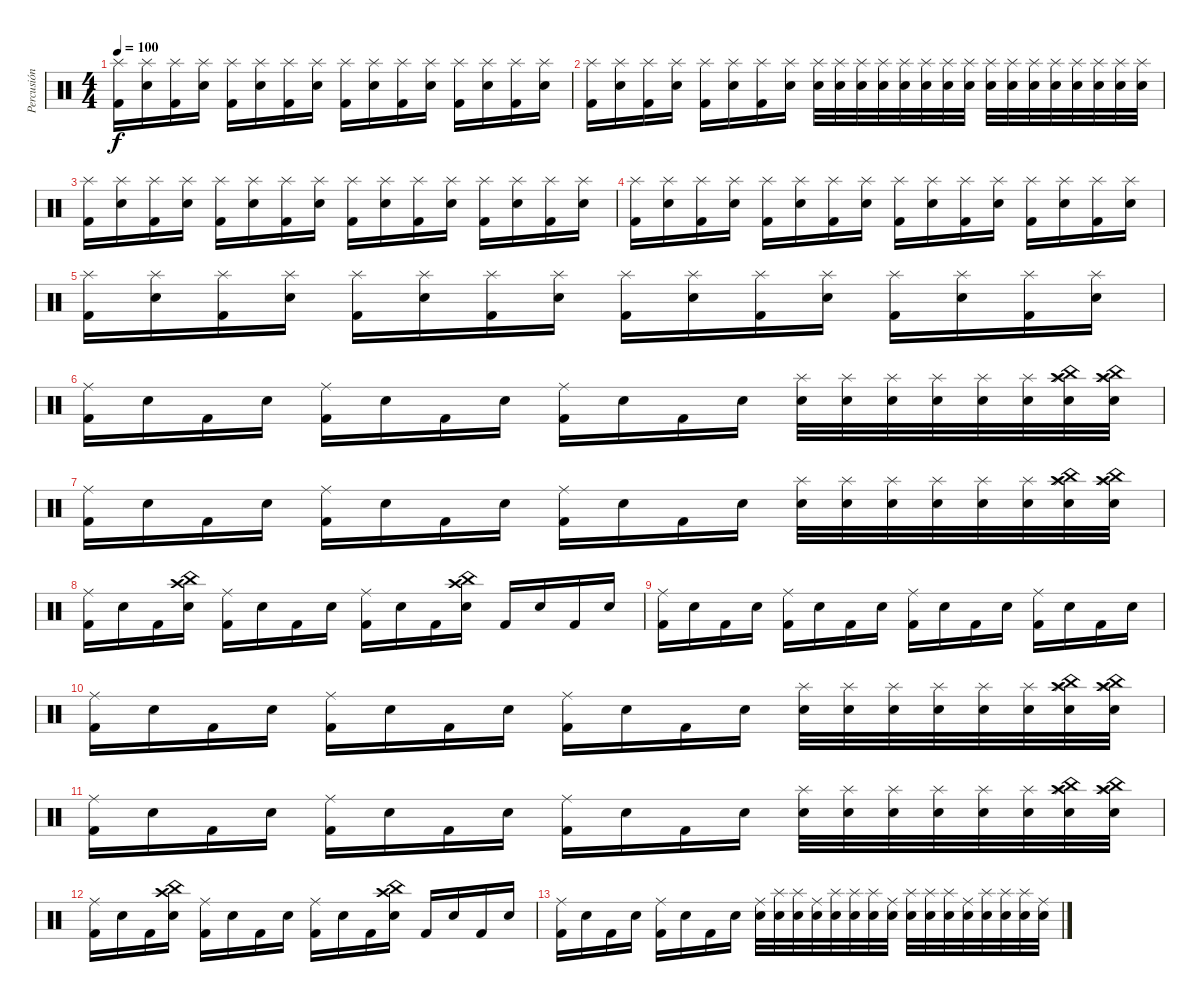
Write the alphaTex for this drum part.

\track ("Percusión" "Percusión") {instrument percussion}
\staff {score}
\articulation defaults
\ts (4 4)
\tempo 100
\clef neutral
\ks c
("Kick (hit) 2" "Splash (hit)").16{dy f} ("Snare (hit) 2" "Splash (hit)").16 ("Kick (hit) 2" "Splash (hit)").16 ("Snare (hit) 2" "Splash (hit)").16 ("Kick (hit) 2" "Splash (hit)").16 ("Snare (hit) 2" "Splash (hit)").16 ("Kick (hit) 2" "Splash (hit)").16 ("Snare (hit) 2" "Splash (hit)").16 ("Kick (hit) 2" "Splash (hit)").16 ("Snare (hit) 2" "Splash (hit)").16 ("Kick (hit) 2" "Splash (hit)").16 ("Snare (hit) 2" "Splash (hit)").16 ("Kick (hit) 2" "Splash (hit)").16 ("Snare (hit) 2" "Splash (hit)").16 ("Kick (hit) 2" "Splash (hit)").16 ("Snare (hit) 2" "Splash (hit)").16 |
("Kick (hit) 2" "Splash (hit)").16 ("Snare (hit) 2" "Splash (hit)").16 ("Kick (hit) 2" "Splash (hit)").16 ("Snare (hit) 2" "Splash (hit)").16 ("Kick (hit) 2" "Splash (hit)").16 ("Snare (hit) 2" "Splash (hit)").16 ("Kick (hit) 2" "Splash (hit)").16 ("Snare (hit) 2" "Splash (hit)").16 ("Snare (hit) 2" "Splash (hit)").32 ("Electric Snare (hit)" "Splash (hit)").32 ("Snare (hit) 2" "Splash (hit)").32 ("Electric Snare (hit)" "Splash (hit)").32 ("Snare (hit) 2" "Splash (hit)").32 ("Electric Snare (hit)" "Splash (hit)").32 ("Snare (hit) 2" "Splash (hit)").32 ("Electric Snare (hit)" "Splash (hit)").32 ("Snare (hit) 2" "Splash (hit)").32 ("Electric Snare (hit)" "Splash (hit)").32 ("Snare (hit) 2" "Splash (hit)").32 ("Electric Snare (hit)" "Splash (hit)").32 ("Snare (hit) 2" "Splash (hit)").32 ("Electric Snare (hit)" "Splash (hit)").32 ("Snare (hit) 2" "Splash (hit)").32 ("Electric Snare (hit)" "Splash (hit)").32 |
("Kick (hit) 2" "Splash (hit)").16 ("Snare (hit) 2" "Splash (hit)").16 ("Kick (hit) 2" "Splash (hit)").16 ("Snare (hit) 2" "Splash (hit)").16 ("Kick (hit) 2" "Splash (hit)").16 ("Snare (hit) 2" "Splash (hit)").16 ("Kick (hit) 2" "Splash (hit)").16 ("Snare (hit) 2" "Splash (hit)").16 ("Kick (hit) 2" "Splash (hit)").16 ("Snare (hit) 2" "Splash (hit)").16 ("Kick (hit) 2" "Splash (hit)").16 ("Snare (hit) 2" "Splash (hit)").16 ("Kick (hit) 2" "Splash (hit)").16 ("Snare (hit) 2" "Splash (hit)").16 ("Kick (hit) 2" "Splash (hit)").16 ("Snare (hit) 2" "Splash (hit)").16 |
("Kick (hit) 2" "Splash (hit)").16 ("Snare (hit) 2" "Splash (hit)").16 ("Kick (hit) 2" "Splash (hit)").16 ("Snare (hit) 2" "Splash (hit)").16 ("Kick (hit) 2" "Splash (hit)").16 ("Snare (hit) 2" "Splash (hit)").16 ("Kick (hit) 2" "Splash (hit)").16 ("Snare (hit) 2" "Splash (hit)").16 ("Kick (hit) 2" "Splash (hit)").16 ("Snare (hit) 2" "Splash (hit)").16 ("Kick (hit) 2" "Splash (hit)").16 ("Snare (hit) 2" "Splash (hit)").16 ("Kick (hit) 2" "Splash (hit)").16 ("Snare (hit) 2" "Splash (hit)").16 ("Kick (hit) 2" "Splash (hit)").16 ("Snare (hit) 2" "Splash (hit)").16 |
("Kick (hit) 2" "Splash (hit)").16 ("Snare (hit) 2" "Splash (hit)").16 ("Kick (hit) 2" "Splash (hit)").16 ("Snare (hit) 2" "Splash (hit)").16 ("Kick (hit) 2" "Splash (hit)").16 ("Snare (hit) 2" "Splash (hit)").16 ("Kick (hit) 2" "Splash (hit)").16 ("Snare (hit) 2" "Splash (hit)").16 ("Kick (hit) 2" "Splash (hit)").16 ("Snare (hit) 2" "Splash (hit)").16 ("Kick (hit) 2" "Splash (hit)").16 ("Snare (hit) 2" "Splash (hit)").16 ("Kick (hit) 2" "Splash (hit)").16 ("Snare (hit) 2" "Splash (hit)").16 ("Kick (hit) 2" "Splash (hit)").16 ("Snare (hit) 2" "Splash (hit)").16 |
("Kick (hit) 2" "Ride (middle)").16 "Snare (hit) 2".16 "Kick (hit) 2".16 "Snare (hit) 2".16 ("Kick (hit) 2" "Ride (middle)").16 "Snare (hit) 2".16 "Kick (hit) 2".16 "Snare (hit) 2".16 ("Kick (hit) 2" "Ride (middle)").16 "Snare (hit) 2".16 "Kick (hit) 2".16 "Snare (hit) 2".16 ("Snare (hit) 2" "Splash (hit)").32 ("Electric Snare (hit)" "Splash (hit)").32 ("Snare (hit) 2" "Splash (hit)").32 ("Electric Snare (hit)" "Splash (hit)").32 ("Snare (hit) 2" "Splash (hit)").32 ("Electric Snare (hit)" "Splash (hit)").32 ("Snare (hit) 2" "Crash high (hit)" "China (hit)" "Splash (hit)").32 ("Electric Snare (hit)" "Crash high (hit)" "China (hit)" "Splash (hit)").32 |
("Kick (hit) 2" "Ride (middle)").16 "Snare (hit) 2".16 "Kick (hit) 2".16 "Snare (hit) 2".16 ("Kick (hit) 2" "Ride (middle)").16 "Snare (hit) 2".16 "Kick (hit) 2".16 "Snare (hit) 2".16 ("Kick (hit) 2" "Ride (middle)").16 "Snare (hit) 2".16 "Kick (hit) 2".16 "Snare (hit) 2".16 ("Snare (hit) 2" "Splash (hit)").32 ("Electric Snare (hit)" "Splash (hit)").32 ("Snare (hit) 2" "Splash (hit)").32 ("Electric Snare (hit)" "Splash (hit)").32 ("Snare (hit) 2" "Splash (hit)").32 ("Electric Snare (hit)" "Splash (hit)").32 ("Snare (hit) 2" "Crash high (hit)" "China (hit)" "Splash (hit)").32 ("Electric Snare (hit)" "Crash high (hit)" "China (hit)" "Splash (hit)").32 |
("Kick (hit) 2" "Ride (middle)").16 "Snare (hit) 2".16 "Kick (hit) 2".16 ("Snare (hit) 2" "China (hit)" "Crash high (hit)").16 ("Kick (hit) 2" "Ride (middle)").16 "Snare (hit) 2".16 "Kick (hit) 2".16 "Snare (hit) 2".16 ("Kick (hit) 2" "Ride (middle)").16 "Snare (hit) 2".16 "Kick (hit) 2".16 ("Snare (hit) 2" "China (hit)" "Crash high (hit)").16 "Kick (hit) 2".16 "Snare (hit) 2".16 "Kick (hit) 2".16 "Snare (hit) 2".16 |
("Kick (hit) 2" "Ride (middle)").16 "Snare (hit) 2".16 "Kick (hit) 2".16 "Snare (hit) 2".16 ("Kick (hit) 2" "Ride (middle)").16 "Snare (hit) 2".16 "Kick (hit) 2".16 "Snare (hit) 2".16 ("Kick (hit) 2" "Ride (middle)").16 "Snare (hit) 2".16 "Kick (hit) 2".16 "Snare (hit) 2".16 ("Kick (hit) 2" "Ride (middle)").16 "Snare (hit) 2".16 "Kick (hit) 2".16 "Snare (hit) 2".16 |
("Kick (hit) 2" "Ride (middle)").16 "Snare (hit) 2".16 "Kick (hit) 2".16 "Snare (hit) 2".16 ("Kick (hit) 2" "Ride (middle)").16 "Snare (hit) 2".16 "Kick (hit) 2".16 "Snare (hit) 2".16 ("Kick (hit) 2" "Ride (middle)").16 "Snare (hit) 2".16 "Kick (hit) 2".16 "Snare (hit) 2".16 ("Snare (hit) 2" "Splash (hit)").32 ("Electric Snare (hit)" "Splash (hit)").32 ("Snare (hit) 2" "Splash (hit)").32 ("Electric Snare (hit)" "Splash (hit)").32 ("Snare (hit) 2" "Splash (hit)").32 ("Electric Snare (hit)" "Splash (hit)").32 ("Snare (hit) 2" "Crash high (hit)" "China (hit)" "Splash (hit)").32 ("Electric Snare (hit)" "Crash high (hit)" "China (hit)" "Splash (hit)").32 |
("Kick (hit) 2" "Ride (middle)").16 "Snare (hit) 2".16 "Kick (hit) 2".16 "Snare (hit) 2".16 ("Kick (hit) 2" "Ride (middle)").16 "Snare (hit) 2".16 "Kick (hit) 2".16 "Snare (hit) 2".16 ("Kick (hit) 2" "Ride (middle)").16 "Snare (hit) 2".16 "Kick (hit) 2".16 "Snare (hit) 2".16 ("Snare (hit) 2" "Splash (hit)").32 ("Electric Snare (hit)" "Splash (hit)").32 ("Snare (hit) 2" "Splash (hit)").32 ("Electric Snare (hit)" "Splash (hit)").32 ("Snare (hit) 2" "Splash (hit)").32 ("Electric Snare (hit)" "Splash (hit)").32 ("Snare (hit) 2" "Crash high (hit)" "China (hit)" "Splash (hit)").32 ("Electric Snare (hit)" "Crash high (hit)" "China (hit)" "Splash (hit)").32 |
("Kick (hit) 2" "Ride (middle)").16 "Snare (hit) 2".16 "Kick (hit) 2".16 ("Snare (hit) 2" "China (hit)" "Crash high (hit)").16 ("Kick (hit) 2" "Ride (middle)").16 "Snare (hit) 2".16 "Kick (hit) 2".16 "Snare (hit) 2".16 ("Kick (hit) 2" "Ride (middle)").16 "Snare (hit) 2".16 "Kick (hit) 2".16 ("Snare (hit) 2" "China (hit)" "Crash high (hit)").16 "Kick (hit) 2".16 "Snare (hit) 2".16 "Kick (hit) 2".16 "Snare (hit) 2".16 |
("Kick (hit) 2" "Ride (middle)").16 "Snare (hit) 2".16 "Kick (hit) 2".16 "Snare (hit) 2".16 ("Kick (hit) 2" "Ride (middle)").16 "Snare (hit) 2".16 "Kick (hit) 2".16 "Snare (hit) 2".16 ("Snare (hit) 2" "Ride (middle)").32 ("Electric Snare (hit)" "Splash (hit)").32 ("Snare (hit) 2" "Splash (hit)").32 ("Electric Snare (hit)" "Ride (middle)").32 ("Snare (hit) 2" "Splash (hit)").32 ("Electric Snare (hit)" "Splash (hit)").32 ("Snare (hit) 2" "Splash (hit)").32 ("Electric Snare (hit)" "Ride (middle)").32 ("Snare (hit) 2" "Splash (hit)").32 ("Electric Snare (hit)" "Splash (hit)").32 ("Snare (hit) 2" "Splash (hit)").32 ("Electric Snare (hit)" "Ride (middle)").32 ("Snare (hit) 2" "Splash (hit)").32 ("Electric Snare (hit)" "Splash (hit)").32 ("Snare (hit) 2" "Splash (hit)").32 ("Electric Snare (hit)" "Ride (middle)").32
